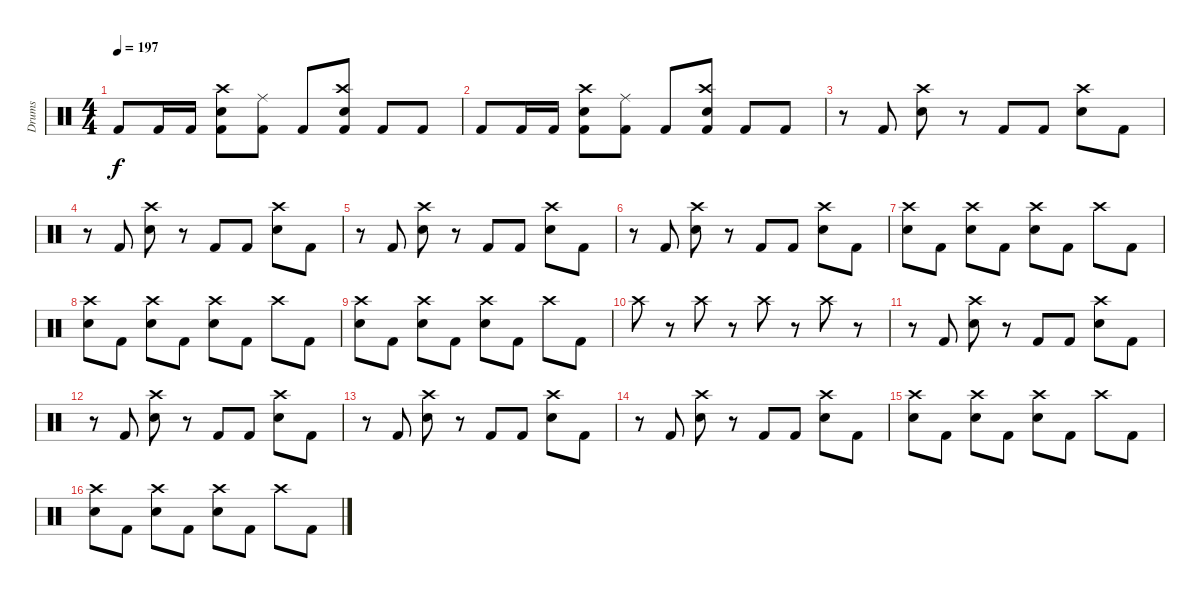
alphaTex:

\track ("Drums" "Drums") {instrument percussion}
\staff {score}
\articulation defaults
\ts (4 4)
\tempo 197
\clef neutral
\ks c "Kick (hit) 2".8{dy f} "Kick (hit) 2".16 "Kick (hit) 2".16
("Crash high (hit)" "Electric Snare (hit)" "Kick (hit) 2").8 ("Ride (middle)" "Kick (hit) 2").8 "Kick (hit) 2".8 ("Crash high (hit)" "Electric Snare (hit)" "Kick (hit) 2").8 "Kick (hit) 2".8 "Kick (hit) 2".8 |
"Kick (hit) 2".8 "Kick (hit) 2".16 "Kick (hit) 2".16 ("Crash high (hit)" "Electric Snare (hit)" "Kick (hit) 2").8 ("Ride (middle)" "Kick (hit) 2").8 "Kick (hit) 2".8 ("Crash high (hit)" "Electric Snare (hit)" "Kick (hit) 2").8 "Kick (hit) 2".8 "Kick (hit) 2".8 |
r.8 "Kick (hit) 2".8 ("Crash high (hit)" "Electric Snare (hit)").8 r.8 "Kick (hit) 2".8 "Kick (hit) 2".8 ("Crash high (hit)" "Electric Snare (hit)").8 "Kick (hit) 2".8 |
r.8 "Kick (hit) 2".8 ("Crash high (hit)" "Electric Snare (hit)").8 r.8 "Kick (hit) 2".8 "Kick (hit) 2".8 ("Crash high (hit)" "Electric Snare (hit)").8 "Kick (hit) 2".8 |
r.8 "Kick (hit) 2".8 ("Crash high (hit)" "Electric Snare (hit)").8 r.8 "Kick (hit) 2".8 "Kick (hit) 2".8 ("Crash high (hit)" "Electric Snare (hit)").8 "Kick (hit) 2".8 |
r.8 "Kick (hit) 2".8 ("Crash high (hit)" "Electric Snare (hit)").8 r.8 "Kick (hit) 2".8 "Kick (hit) 2".8 ("Crash high (hit)" "Electric Snare (hit)").8 "Kick (hit) 2".8 |
("Crash high (hit)" "Electric Snare (hit)").8 "Kick (hit) 2".8 ("Crash high (hit)" "Electric Snare (hit)").8 "Kick (hit) 2".8 ("Crash high (hit)" "Electric Snare (hit)").8 "Kick (hit) 2".8 "Crash high (hit)".8 "Kick (hit) 2".8 |
("Crash high (hit)" "Electric Snare (hit)").8 "Kick (hit) 2".8 ("Crash high (hit)" "Electric Snare (hit)").8 "Kick (hit) 2".8 ("Crash high (hit)" "Electric Snare (hit)").8 "Kick (hit) 2".8 "Crash high (hit)".8 "Kick (hit) 2".8 |
("Crash high (hit)" "Electric Snare (hit)").8 "Kick (hit) 2".8 ("Crash high (hit)" "Electric Snare (hit)").8 "Kick (hit) 2".8 ("Crash high (hit)" "Electric Snare (hit)").8 "Kick (hit) 2".8 "Crash high (hit)".8 "Kick (hit) 2".8 |
"Crash high (hit)".8 r.8 "Crash high (hit)".8 r.8 "Crash high (hit)".8 r.8 "Crash high (hit)".8 r.8 |
r.8 "Kick (hit) 2".8 ("Crash high (hit)" "Electric Snare (hit)").8 r.8 "Kick (hit) 2".8 "Kick (hit) 2".8 ("Crash high (hit)" "Electric Snare (hit)").8 "Kick (hit) 2".8 |
r.8 "Kick (hit) 2".8 ("Crash high (hit)" "Electric Snare (hit)").8 r.8 "Kick (hit) 2".8 "Kick (hit) 2".8 ("Crash high (hit)" "Electric Snare (hit)").8 "Kick (hit) 2".8 |
r.8 "Kick (hit) 2".8 ("Crash high (hit)" "Electric Snare (hit)").8 r.8 "Kick (hit) 2".8 "Kick (hit) 2".8 ("Crash high (hit)" "Electric Snare (hit)").8 "Kick (hit) 2".8 |
r.8 "Kick (hit) 2".8 ("Crash high (hit)" "Electric Snare (hit)").8 r.8 "Kick (hit) 2".8 "Kick (hit) 2".8 ("Crash high (hit)" "Electric Snare (hit)").8 "Kick (hit) 2".8 |
("Crash high (hit)" "Electric Snare (hit)").8 "Kick (hit) 2".8 ("Crash high (hit)" "Electric Snare (hit)").8 "Kick (hit) 2".8 ("Crash high (hit)" "Electric Snare (hit)").8 "Kick (hit) 2".8 "Crash high (hit)".8 "Kick (hit) 2".8 |
("Crash high (hit)" "Electric Snare (hit)").8 "Kick (hit) 2".8 ("Crash high (hit)" "Electric Snare (hit)").8 "Kick (hit) 2".8 ("Crash high (hit)" "Electric Snare (hit)").8 "Kick (hit) 2".8 "Crash high (hit)".8 "Kick (hit) 2".8
